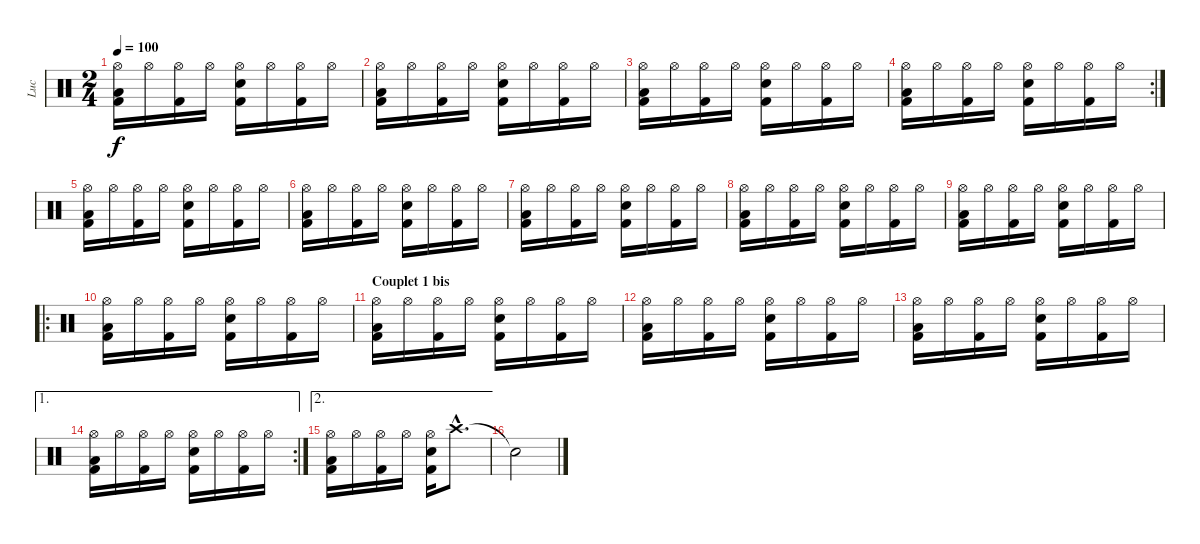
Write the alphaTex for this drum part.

\track ("Luc" "Luc") {instrument percussion}
\staff {score}
\articulation defaults
\ts (2 4)
\tempo 100
\clef neutral
\ks c
("Hi-Hat (open)" "Low Tom (hit)" "Kick (hit) 2").16{dy f} "Hi-Hat (open)".16 ("Hi-Hat (open)" "Kick (hit) 2").16 "Hi-Hat (open)".16 ("Hi-Hat (open)" "Snare (hit) 2" "Kick (hit) 2").16 "Hi-Hat (open)".16 ("Hi-Hat (open)" "Kick (hit) 2").16 "Hi-Hat (open)".16 |
("Hi-Hat (open)" "Low Tom (hit)" "Kick (hit) 2").16 "Hi-Hat (open)".16 ("Hi-Hat (open)" "Kick (hit) 2").16 "Hi-Hat (open)".16 ("Hi-Hat (open)" "Snare (hit) 2" "Kick (hit) 2").16 "Hi-Hat (open)".16 ("Hi-Hat (open)" "Kick (hit) 2").16 "Hi-Hat (open)".16 |
("Hi-Hat (open)" "Low Tom (hit)" "Kick (hit) 2").16 "Hi-Hat (open)".16 ("Hi-Hat (open)" "Kick (hit) 2").16 "Hi-Hat (open)".16 ("Hi-Hat (open)" "Snare (hit) 2" "Kick (hit) 2").16 "Hi-Hat (open)".16 ("Hi-Hat (open)" "Kick (hit) 2").16 "Hi-Hat (open)".16 |
\rc 2
("Hi-Hat (open)" "Low Tom (hit)" "Kick (hit) 2").16 "Hi-Hat (open)".16 ("Hi-Hat (open)" "Kick (hit) 2").16 "Hi-Hat (open)".16 ("Hi-Hat (open)" "Snare (hit) 2" "Kick (hit) 2").16 "Hi-Hat (open)".16 ("Hi-Hat (open)" "Kick (hit) 2").16 "Hi-Hat (open)".16 |
("Hi-Hat (open)" "Low Tom (hit)" "Kick (hit) 2").16 "Hi-Hat (open)".16 ("Hi-Hat (open)" "Kick (hit) 2").16 "Hi-Hat (open)".16 ("Hi-Hat (open)" "Snare (hit) 2" "Kick (hit) 2").16 "Hi-Hat (open)".16 ("Hi-Hat (open)" "Kick (hit) 2").16 "Hi-Hat (open)".16 |
("Hi-Hat (open)" "Low Tom (hit)" "Kick (hit) 2").16 "Hi-Hat (open)".16 ("Hi-Hat (open)" "Kick (hit) 2").16 "Hi-Hat (open)".16 ("Hi-Hat (open)" "Snare (hit) 2" "Kick (hit) 2").16 "Hi-Hat (open)".16 ("Hi-Hat (open)" "Kick (hit) 2").16 "Hi-Hat (open)".16 |
("Hi-Hat (open)" "Low Tom (hit)" "Kick (hit) 2").16 "Hi-Hat (open)".16 ("Hi-Hat (open)" "Kick (hit) 2").16 "Hi-Hat (open)".16 ("Hi-Hat (open)" "Snare (hit) 2" "Kick (hit) 2").16 "Hi-Hat (open)".16 ("Hi-Hat (open)" "Kick (hit) 2").16 "Hi-Hat (open)".16 |
("Hi-Hat (open)" "Low Tom (hit)" "Kick (hit) 2").16 "Hi-Hat (open)".16 ("Hi-Hat (open)" "Kick (hit) 2").16 "Hi-Hat (open)".16 ("Hi-Hat (open)" "Snare (hit) 2" "Kick (hit) 2").16 "Hi-Hat (open)".16 ("Hi-Hat (open)" "Kick (hit) 2").16 "Hi-Hat (open)".16 |
("Hi-Hat (open)" "Low Tom (hit)" "Kick (hit) 2").16 "Hi-Hat (open)".16 ("Hi-Hat (open)" "Kick (hit) 2").16 "Hi-Hat (open)".16 ("Hi-Hat (open)" "Snare (hit) 2" "Kick (hit) 2").16 "Hi-Hat (open)".16 ("Hi-Hat (open)" "Kick (hit) 2").16 "Hi-Hat (open)".16 |
\ro
("Hi-Hat (open)" "Low Tom (hit)" "Kick (hit) 2").16 "Hi-Hat (open)".16 ("Hi-Hat (open)" "Kick (hit) 2").16 "Hi-Hat (open)".16 ("Hi-Hat (open)" "Snare (hit) 2" "Kick (hit) 2").16 "Hi-Hat (open)".16 ("Hi-Hat (open)" "Kick (hit) 2").16 "Hi-Hat (open)".16 |
\section ("" "Couplet 1 bis")
("Hi-Hat (open)" "Low Tom (hit)" "Kick (hit) 2").16 "Hi-Hat (open)".16 ("Hi-Hat (open)" "Kick (hit) 2").16 "Hi-Hat (open)".16 ("Hi-Hat (open)" "Snare (hit) 2" "Kick (hit) 2").16 "Hi-Hat (open)".16 ("Hi-Hat (open)" "Kick (hit) 2").16 "Hi-Hat (open)".16 |
("Hi-Hat (open)" "Low Tom (hit)" "Kick (hit) 2").16 "Hi-Hat (open)".16 ("Hi-Hat (open)" "Kick (hit) 2").16 "Hi-Hat (open)".16 ("Hi-Hat (open)" "Snare (hit) 2" "Kick (hit) 2").16 "Hi-Hat (open)".16 ("Hi-Hat (open)" "Kick (hit) 2").16 "Hi-Hat (open)".16 |
("Hi-Hat (open)" "Low Tom (hit)" "Kick (hit) 2").16 "Hi-Hat (open)".16 ("Hi-Hat (open)" "Kick (hit) 2").16 "Hi-Hat (open)".16 ("Hi-Hat (open)" "Snare (hit) 2" "Kick (hit) 2").16 "Hi-Hat (open)".16 ("Hi-Hat (open)" "Kick (hit) 2").16 "Hi-Hat (open)".16 |
\ae 1
\rc 2
("Hi-Hat (open)" "Low Tom (hit)" "Kick (hit) 2").16 "Hi-Hat (open)".16 ("Hi-Hat (open)" "Kick (hit) 2").16 "Hi-Hat (open)".16 ("Hi-Hat (open)" "Snare (hit) 2" "Kick (hit) 2").16 "Hi-Hat (open)".16 ("Hi-Hat (open)" "Kick (hit) 2").16 "Hi-Hat (open)".16 |
\ae 2
("Hi-Hat (open)" "Low Tom (hit)" "Kick (hit) 2").16 "Hi-Hat (open)".16 ("Hi-Hat (open)" "Kick (hit) 2").16 "Hi-Hat (open)".16 ("Hi-Hat (open)" "Snare (hit) 2" "Kick (hit) 2").16 "Crash high (hit)"{hac}.8{d} |
"Snare (hit)"{t}.2
